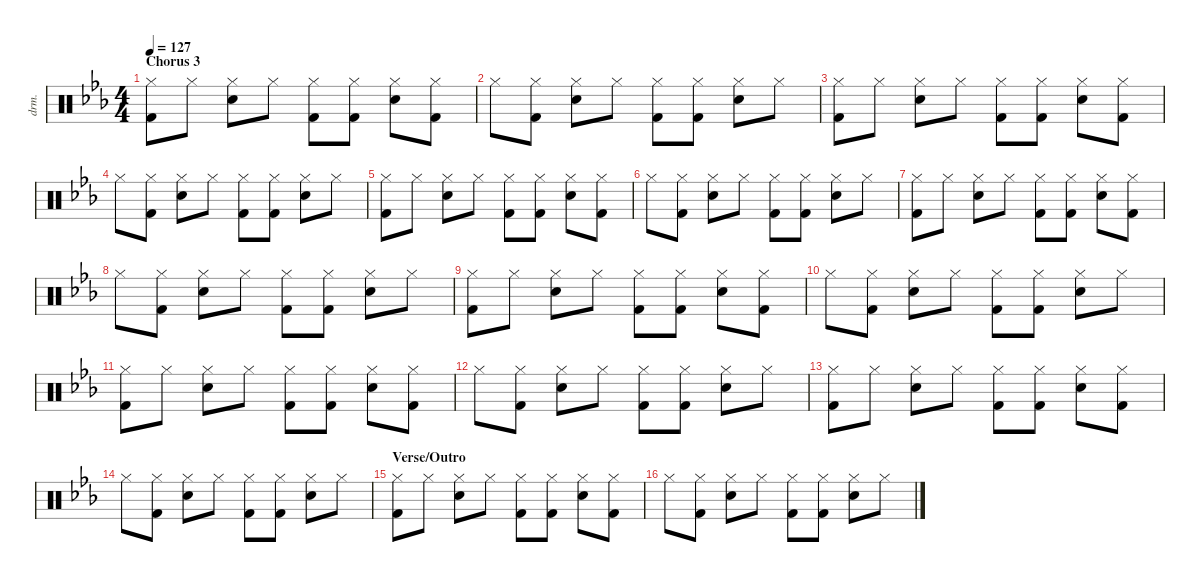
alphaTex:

\defaultSystemsLayout 4
\hideDynamics
\bracketExtendMode nobrackets
\otherSystemsTrackNameOrientation horizontal
\track ("Drums" "drm.") {defaultSystemsLayout 4 instrument percussion}
\staff {score}
\articulation defaults
\ts (4 4)
\section ("" "Chorus 3")
\tempo 127
\clef neutral
\ks eb
("Hi-Hat (closed)"{acc forcenatural} "Kick (hit) 2"{acc forcenatural}).8{dy f beam Down} "Hi-Hat (closed)"{acc forcenatural}.8{beam Down} ("Hi-Hat (closed)"{acc forcenatural} "Snare (hit) 2"{acc forcenatural}).8{beam Down} "Hi-Hat (closed)"{acc forcenatural}.8{beam Down} ("Hi-Hat (closed)"{acc forcenatural} "Kick (hit) 2"{acc forcenatural}).8{beam Down} ("Hi-Hat (closed)"{acc forcenatural} "Kick (hit) 2"{acc forcenatural}).8{beam Down} ("Hi-Hat (closed)"{acc forcenatural} "Snare (hit) 2"{acc forcenatural}).8{beam Down} ("Hi-Hat (closed)"{acc forcenatural} "Kick (hit) 2"{acc forcenatural}).8{beam Down} |
"Hi-Hat (closed)"{acc forcenatural}.8{beam Down} ("Hi-Hat (closed)"{acc forcenatural} "Kick (hit) 2"{acc forcenatural}).8{beam Down} ("Hi-Hat (closed)"{acc forcenatural} "Snare (hit) 2"{acc forcenatural}).8{beam Down} "Hi-Hat (closed)"{acc forcenatural}.8{beam Down} ("Hi-Hat (closed)"{acc forcenatural} "Kick (hit) 2"{acc forcenatural}).8{beam Down} ("Hi-Hat (closed)"{acc forcenatural} "Kick (hit) 2"{acc forcenatural}).8{beam Down} ("Hi-Hat (closed)"{acc forcenatural} "Snare (hit) 2"{acc forcenatural}).8{beam Down} "Hi-Hat (closed)"{acc forcenatural}.8{beam Down} |
("Hi-Hat (closed)"{acc forcenatural} "Kick (hit) 2"{acc forcenatural}).8{beam Down} "Hi-Hat (closed)"{acc forcenatural}.8{beam Down} ("Hi-Hat (closed)"{acc forcenatural} "Snare (hit) 2"{acc forcenatural}).8{beam Down} "Hi-Hat (closed)"{acc forcenatural}.8{beam Down} ("Hi-Hat (closed)"{acc forcenatural} "Kick (hit) 2"{acc forcenatural}).8{beam Down} ("Hi-Hat (closed)"{acc forcenatural} "Kick (hit) 2"{acc forcenatural}).8{beam Down} ("Hi-Hat (closed)"{acc forcenatural} "Snare (hit) 2"{acc forcenatural}).8{beam Down} ("Hi-Hat (closed)"{acc forcenatural} "Kick (hit) 2"{acc forcenatural}).8{beam Down} |
"Hi-Hat (closed)"{acc forcenatural}.8{beam Down} ("Hi-Hat (closed)"{acc forcenatural} "Kick (hit) 2"{acc forcenatural}).8{beam Down} ("Hi-Hat (closed)"{acc forcenatural} "Snare (hit) 2"{acc forcenatural}).8{beam Down} "Hi-Hat (closed)"{acc forcenatural}.8{beam Down} ("Hi-Hat (closed)"{acc forcenatural} "Kick (hit) 2"{acc forcenatural}).8{beam Down} ("Hi-Hat (closed)"{acc forcenatural} "Kick (hit) 2"{acc forcenatural}).8{beam Down} ("Hi-Hat (closed)"{acc forcenatural} "Snare (hit) 2"{acc forcenatural}).8{beam Down} "Hi-Hat (closed)"{acc forcenatural}.8{beam Down} |
("Hi-Hat (closed)"{acc forcenatural} "Kick (hit) 2"{acc forcenatural}).8{beam Down} "Hi-Hat (closed)"{acc forcenatural}.8{beam Down} ("Hi-Hat (closed)"{acc forcenatural} "Snare (hit) 2"{acc forcenatural}).8{beam Down} "Hi-Hat (closed)"{acc forcenatural}.8{beam Down} ("Hi-Hat (closed)"{acc forcenatural} "Kick (hit) 2"{acc forcenatural}).8{beam Down} ("Hi-Hat (closed)"{acc forcenatural} "Kick (hit) 2"{acc forcenatural}).8{beam Down} ("Hi-Hat (closed)"{acc forcenatural} "Snare (hit) 2"{acc forcenatural}).8{beam Down} ("Hi-Hat (closed)"{acc forcenatural} "Kick (hit) 2"{acc forcenatural}).8{beam Down} |
"Hi-Hat (closed)"{acc forcenatural}.8{beam Down} ("Hi-Hat (closed)"{acc forcenatural} "Kick (hit) 2"{acc forcenatural}).8{beam Down} ("Hi-Hat (closed)"{acc forcenatural} "Snare (hit) 2"{acc forcenatural}).8{beam Down} "Hi-Hat (closed)"{acc forcenatural}.8{beam Down} ("Hi-Hat (closed)"{acc forcenatural} "Kick (hit) 2"{acc forcenatural}).8{beam Down} ("Hi-Hat (closed)"{acc forcenatural} "Kick (hit) 2"{acc forcenatural}).8{beam Down} ("Hi-Hat (closed)"{acc forcenatural} "Snare (hit) 2"{acc forcenatural}).8{beam Down} "Hi-Hat (closed)"{acc forcenatural}.8{beam Down} |
("Hi-Hat (closed)"{acc forcenatural} "Kick (hit) 2"{acc forcenatural}).8{beam Down} "Hi-Hat (closed)"{acc forcenatural}.8{beam Down} ("Hi-Hat (closed)"{acc forcenatural} "Snare (hit) 2"{acc forcenatural}).8{beam Down} "Hi-Hat (closed)"{acc forcenatural}.8{beam Down} ("Hi-Hat (closed)"{acc forcenatural} "Kick (hit) 2"{acc forcenatural}).8{beam Down} ("Hi-Hat (closed)"{acc forcenatural} "Kick (hit) 2"{acc forcenatural}).8{beam Down} ("Hi-Hat (closed)"{acc forcenatural} "Snare (hit) 2"{acc forcenatural}).8{beam Down} ("Hi-Hat (closed)"{acc forcenatural} "Kick (hit) 2"{acc forcenatural}).8{beam Down} |
"Hi-Hat (closed)"{acc forcenatural}.8{beam Down} ("Hi-Hat (closed)"{acc forcenatural} "Kick (hit) 2"{acc forcenatural}).8{beam Down} ("Hi-Hat (closed)"{acc forcenatural} "Snare (hit) 2"{acc forcenatural}).8{beam Down} "Hi-Hat (closed)"{acc forcenatural}.8{beam Down} ("Hi-Hat (closed)"{acc forcenatural} "Kick (hit) 2"{acc forcenatural}).8{beam Down} ("Hi-Hat (closed)"{acc forcenatural} "Kick (hit) 2"{acc forcenatural}).8{beam Down} ("Hi-Hat (closed)"{acc forcenatural} "Snare (hit) 2"{acc forcenatural}).8{beam Down} "Hi-Hat (closed)"{acc forcenatural}.8{beam Down} |
("Hi-Hat (closed)"{acc forcenatural} "Kick (hit) 2"{acc forcenatural}).8{beam Down} "Hi-Hat (closed)"{acc forcenatural}.8{beam Down} ("Hi-Hat (closed)"{acc forcenatural} "Snare (hit) 2"{acc forcenatural}).8{beam Down} "Hi-Hat (closed)"{acc forcenatural}.8{beam Down} ("Hi-Hat (closed)"{acc forcenatural} "Kick (hit) 2"{acc forcenatural}).8{beam Down} ("Hi-Hat (closed)"{acc forcenatural} "Kick (hit) 2"{acc forcenatural}).8{beam Down} ("Hi-Hat (closed)"{acc forcenatural} "Snare (hit) 2"{acc forcenatural}).8{beam Down} ("Hi-Hat (closed)"{acc forcenatural} "Kick (hit) 2"{acc forcenatural}).8{beam Down} |
"Hi-Hat (closed)"{acc forcenatural}.8{beam Down} ("Hi-Hat (closed)"{acc forcenatural} "Kick (hit) 2"{acc forcenatural}).8{beam Down} ("Hi-Hat (closed)"{acc forcenatural} "Snare (hit) 2"{acc forcenatural}).8{beam Down} "Hi-Hat (closed)"{acc forcenatural}.8{beam Down} ("Hi-Hat (closed)"{acc forcenatural} "Kick (hit) 2"{acc forcenatural}).8{beam Down} ("Hi-Hat (closed)"{acc forcenatural} "Kick (hit) 2"{acc forcenatural}).8{beam Down} ("Hi-Hat (closed)"{acc forcenatural} "Snare (hit) 2"{acc forcenatural}).8{beam Down} "Hi-Hat (closed)"{acc forcenatural}.8{beam Down} |
("Hi-Hat (closed)"{acc forcenatural} "Kick (hit) 2"{acc forcenatural}).8{beam Down} "Hi-Hat (closed)"{acc forcenatural}.8{beam Down} ("Hi-Hat (closed)"{acc forcenatural} "Snare (hit) 2"{acc forcenatural}).8{beam Down} "Hi-Hat (closed)"{acc forcenatural}.8{beam Down} ("Hi-Hat (closed)"{acc forcenatural} "Kick (hit) 2"{acc forcenatural}).8{beam Down} ("Hi-Hat (closed)"{acc forcenatural} "Kick (hit) 2"{acc forcenatural}).8{beam Down} ("Hi-Hat (closed)"{acc forcenatural} "Snare (hit) 2"{acc forcenatural}).8{beam Down} ("Hi-Hat (closed)"{acc forcenatural} "Kick (hit) 2"{acc forcenatural}).8{beam Down} |
"Hi-Hat (closed)"{acc forcenatural}.8{beam Down} ("Hi-Hat (closed)"{acc forcenatural} "Kick (hit) 2"{acc forcenatural}).8{beam Down} ("Hi-Hat (closed)"{acc forcenatural} "Snare (hit) 2"{acc forcenatural}).8{beam Down} "Hi-Hat (closed)"{acc forcenatural}.8{beam Down} ("Hi-Hat (closed)"{acc forcenatural} "Kick (hit) 2"{acc forcenatural}).8{beam Down} ("Hi-Hat (closed)"{acc forcenatural} "Kick (hit) 2"{acc forcenatural}).8{beam Down} ("Hi-Hat (closed)"{acc forcenatural} "Snare (hit) 2"{acc forcenatural}).8{beam Down} "Hi-Hat (closed)"{acc forcenatural}.8{beam Down} |
("Hi-Hat (closed)"{acc forcenatural} "Kick (hit) 2"{acc forcenatural}).8{beam Down} "Hi-Hat (closed)"{acc forcenatural}.8{beam Down} ("Hi-Hat (closed)"{acc forcenatural} "Snare (hit) 2"{acc forcenatural}).8{beam Down} "Hi-Hat (closed)"{acc forcenatural}.8{beam Down} ("Hi-Hat (closed)"{acc forcenatural} "Kick (hit) 2"{acc forcenatural}).8{beam Down} ("Hi-Hat (closed)"{acc forcenatural} "Kick (hit) 2"{acc forcenatural}).8{beam Down} ("Hi-Hat (closed)"{acc forcenatural} "Snare (hit) 2"{acc forcenatural}).8{beam Down} ("Hi-Hat (closed)"{acc forcenatural} "Kick (hit) 2"{acc forcenatural}).8{beam Down} |
"Hi-Hat (closed)"{acc forcenatural}.8{beam Down} ("Hi-Hat (closed)"{acc forcenatural} "Kick (hit) 2"{acc forcenatural}).8{beam Down} ("Hi-Hat (closed)"{acc forcenatural} "Snare (hit) 2"{acc forcenatural}).8{beam Down} "Hi-Hat (closed)"{acc forcenatural}.8{beam Down} ("Hi-Hat (closed)"{acc forcenatural} "Kick (hit) 2"{acc forcenatural}).8{beam Down} ("Hi-Hat (closed)"{acc forcenatural} "Kick (hit) 2"{acc forcenatural}).8{beam Down} ("Hi-Hat (closed)"{acc forcenatural} "Snare (hit) 2"{acc forcenatural}).8{beam Down} "Hi-Hat (closed)"{acc forcenatural}.8{beam Down} |
\section ("" "Verse/Outro")
("Hi-Hat (closed)"{acc forcenatural} "Kick (hit) 2"{acc forcenatural}).8{beam Down} "Hi-Hat (closed)"{acc forcenatural}.8{beam Down} ("Hi-Hat (closed)"{acc forcenatural} "Snare (hit) 2"{acc forcenatural}).8{beam Down} "Hi-Hat (closed)"{acc forcenatural}.8{beam Down} ("Hi-Hat (closed)"{acc forcenatural} "Kick (hit) 2"{acc forcenatural}).8{beam Down} ("Hi-Hat (closed)"{acc forcenatural} "Kick (hit) 2"{acc forcenatural}).8{beam Down} ("Hi-Hat (closed)"{acc forcenatural} "Snare (hit) 2"{acc forcenatural}).8{beam Down} ("Hi-Hat (closed)"{acc forcenatural} "Kick (hit) 2"{acc forcenatural}).8{beam Down} |
"Hi-Hat (closed)"{acc forcenatural}.8{beam Down} ("Hi-Hat (closed)"{acc forcenatural} "Kick (hit) 2"{acc forcenatural}).8{beam Down} ("Hi-Hat (closed)"{acc forcenatural} "Snare (hit) 2"{acc forcenatural}).8{beam Down} "Hi-Hat (closed)"{acc forcenatural}.8{beam Down} ("Hi-Hat (closed)"{acc forcenatural} "Kick (hit) 2"{acc forcenatural}).8{beam Down} ("Hi-Hat (closed)"{acc forcenatural} "Kick (hit) 2"{acc forcenatural}).8{beam Down} ("Hi-Hat (closed)"{acc forcenatural} "Snare (hit) 2"{acc forcenatural}).8{beam Down} "Hi-Hat (closed)"{acc forcenatural}.8{beam Down}
